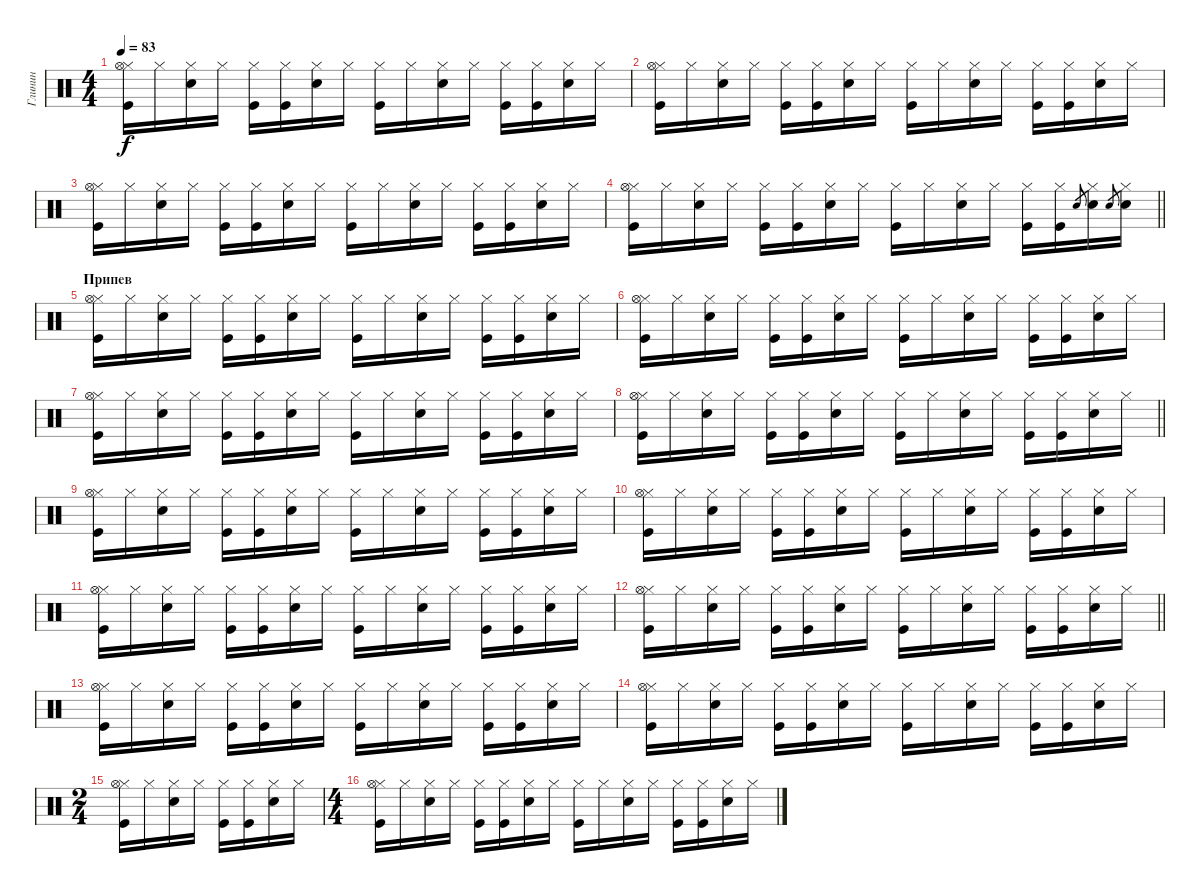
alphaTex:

\track ("Глинин" "Глинин") {instrument percussion}
\staff {score}
\articulation defaults
\ts (4 4)
\tempo 83
\clef neutral
\ks c
("Hi-Hat (closed)" "Kick (hit)" "Hi-Hat (open)").16{dy f} "Hi-Hat (closed)".16 ("Hi-Hat (closed)" "Snare (hit) 2").16 "Hi-Hat (closed)".16 ("Hi-Hat (closed)" "Kick (hit)").16 ("Hi-Hat (closed)" "Kick (hit)").16 ("Hi-Hat (closed)" "Snare (hit) 2").16 "Hi-Hat (closed)".16 ("Hi-Hat (closed)" "Kick (hit)").16 "Hi-Hat (closed)".16 ("Hi-Hat (closed)" "Snare (hit) 2").16 "Hi-Hat (closed)".16 ("Hi-Hat (closed)" "Kick (hit)").16 ("Hi-Hat (closed)" "Kick (hit)").16 ("Hi-Hat (closed)" "Snare (hit) 2").16 "Hi-Hat (closed)".16 |
("Hi-Hat (closed)" "Kick (hit)" "Hi-Hat (open)").16 "Hi-Hat (closed)".16 ("Hi-Hat (closed)" "Snare (hit) 2").16 "Hi-Hat (closed)".16 ("Hi-Hat (closed)" "Kick (hit)").16 ("Hi-Hat (closed)" "Kick (hit)").16 ("Hi-Hat (closed)" "Snare (hit) 2").16 "Hi-Hat (closed)".16 ("Hi-Hat (closed)" "Kick (hit)").16 "Hi-Hat (closed)".16 ("Hi-Hat (closed)" "Snare (hit) 2").16 "Hi-Hat (closed)".16 ("Hi-Hat (closed)" "Kick (hit)").16 ("Hi-Hat (closed)" "Kick (hit)").16 ("Hi-Hat (closed)" "Snare (hit) 2").16 "Hi-Hat (closed)".16 |
("Hi-Hat (closed)" "Kick (hit)" "Hi-Hat (open)").16 "Hi-Hat (closed)".16 ("Hi-Hat (closed)" "Snare (hit) 2").16 "Hi-Hat (closed)".16 ("Hi-Hat (closed)" "Kick (hit)").16 ("Hi-Hat (closed)" "Kick (hit)").16 ("Hi-Hat (closed)" "Snare (hit) 2").16 "Hi-Hat (closed)".16 ("Hi-Hat (closed)" "Kick (hit)").16 "Hi-Hat (closed)".16 ("Hi-Hat (closed)" "Snare (hit) 2").16 "Hi-Hat (closed)".16 ("Hi-Hat (closed)" "Kick (hit)").16 ("Hi-Hat (closed)" "Kick (hit)").16 ("Hi-Hat (closed)" "Snare (hit) 2").16 "Hi-Hat (closed)".16 |
\barLineRight lightlight
("Hi-Hat (closed)" "Kick (hit)" "Hi-Hat (open)").16 "Hi-Hat (closed)".16 ("Hi-Hat (closed)" "Snare (hit) 2").16 "Hi-Hat (closed)".16 ("Hi-Hat (closed)" "Kick (hit)").16 ("Hi-Hat (closed)" "Kick (hit)").16 ("Hi-Hat (closed)" "Snare (hit) 2").16 "Hi-Hat (closed)".16 ("Hi-Hat (closed)" "Kick (hit)").16 "Hi-Hat (closed)".16 ("Hi-Hat (closed)" "Snare (hit) 2").16 "Hi-Hat (closed)".16 ("Hi-Hat (closed)" "Kick (hit)").16 ("Hi-Hat (closed)" "Kick (hit)").16 "Snare (hit) 2".8{gr} ("Hi-Hat (closed)" "Snare (hit) 2").16 "Snare (hit) 2".8{gr} ("Hi-Hat (closed)" "Snare (hit) 2").16 |
\section ("" "Припев")
("Hi-Hat (closed)" "Kick (hit)" "Hi-Hat (open)").16 "Hi-Hat (closed)".16 ("Hi-Hat (closed)" "Snare (hit) 2").16 "Hi-Hat (closed)".16 ("Hi-Hat (closed)" "Kick (hit)").16 ("Hi-Hat (closed)" "Kick (hit)").16 ("Hi-Hat (closed)" "Snare (hit) 2").16 "Hi-Hat (closed)".16 ("Hi-Hat (closed)" "Kick (hit)").16 "Hi-Hat (closed)".16 ("Hi-Hat (closed)" "Snare (hit) 2").16 "Hi-Hat (closed)".16 ("Hi-Hat (closed)" "Kick (hit)").16 ("Hi-Hat (closed)" "Kick (hit)").16 ("Hi-Hat (closed)" "Snare (hit) 2").16 "Hi-Hat (closed)".16 |
("Hi-Hat (closed)" "Kick (hit)" "Hi-Hat (open)").16 "Hi-Hat (closed)".16 ("Hi-Hat (closed)" "Snare (hit) 2").16 "Hi-Hat (closed)".16 ("Hi-Hat (closed)" "Kick (hit)").16 ("Hi-Hat (closed)" "Kick (hit)").16 ("Hi-Hat (closed)" "Snare (hit) 2").16 "Hi-Hat (closed)".16 ("Hi-Hat (closed)" "Kick (hit)").16 "Hi-Hat (closed)".16 ("Hi-Hat (closed)" "Snare (hit) 2").16 "Hi-Hat (closed)".16 ("Hi-Hat (closed)" "Kick (hit)").16 ("Hi-Hat (closed)" "Kick (hit)").16 ("Hi-Hat (closed)" "Snare (hit) 2").16 "Hi-Hat (closed)".16 |
("Hi-Hat (closed)" "Kick (hit)" "Hi-Hat (open)").16 "Hi-Hat (closed)".16 ("Hi-Hat (closed)" "Snare (hit) 2").16 "Hi-Hat (closed)".16 ("Hi-Hat (closed)" "Kick (hit)").16 ("Hi-Hat (closed)" "Kick (hit)").16 ("Hi-Hat (closed)" "Snare (hit) 2").16 "Hi-Hat (closed)".16 ("Hi-Hat (closed)" "Kick (hit)").16 "Hi-Hat (closed)".16 ("Hi-Hat (closed)" "Snare (hit) 2").16 "Hi-Hat (closed)".16 ("Hi-Hat (closed)" "Kick (hit)").16 ("Hi-Hat (closed)" "Kick (hit)").16 ("Hi-Hat (closed)" "Snare (hit) 2").16 "Hi-Hat (closed)".16 |
\barLineRight lightlight
("Hi-Hat (closed)" "Kick (hit)" "Hi-Hat (open)").16 "Hi-Hat (closed)".16 ("Hi-Hat (closed)" "Snare (hit) 2").16 "Hi-Hat (closed)".16 ("Hi-Hat (closed)" "Kick (hit)").16 ("Hi-Hat (closed)" "Kick (hit)").16 ("Hi-Hat (closed)" "Snare (hit) 2").16 "Hi-Hat (closed)".16 ("Hi-Hat (closed)" "Kick (hit)").16 "Hi-Hat (closed)".16 ("Hi-Hat (closed)" "Snare (hit) 2").16 "Hi-Hat (closed)".16 ("Hi-Hat (closed)" "Kick (hit)").16 ("Hi-Hat (closed)" "Kick (hit)").16 ("Hi-Hat (closed)" "Snare (hit) 2").16 "Hi-Hat (closed)".16 |
("Hi-Hat (closed)" "Kick (hit)" "Hi-Hat (open)").16 "Hi-Hat (closed)".16 ("Hi-Hat (closed)" "Snare (hit) 2").16 "Hi-Hat (closed)".16 ("Hi-Hat (closed)" "Kick (hit)").16 ("Hi-Hat (closed)" "Kick (hit)").16 ("Hi-Hat (closed)" "Snare (hit) 2").16 "Hi-Hat (closed)".16 ("Hi-Hat (closed)" "Kick (hit)").16 "Hi-Hat (closed)".16 ("Hi-Hat (closed)" "Snare (hit) 2").16 "Hi-Hat (closed)".16 ("Hi-Hat (closed)" "Kick (hit)").16 ("Hi-Hat (closed)" "Kick (hit)").16 ("Hi-Hat (closed)" "Snare (hit) 2").16 "Hi-Hat (closed)".16 |
("Hi-Hat (closed)" "Kick (hit)" "Hi-Hat (open)").16 "Hi-Hat (closed)".16 ("Hi-Hat (closed)" "Snare (hit) 2").16 "Hi-Hat (closed)".16 ("Hi-Hat (closed)" "Kick (hit)").16 ("Hi-Hat (closed)" "Kick (hit)").16 ("Hi-Hat (closed)" "Snare (hit) 2").16 "Hi-Hat (closed)".16 ("Hi-Hat (closed)" "Kick (hit)").16 "Hi-Hat (closed)".16 ("Hi-Hat (closed)" "Snare (hit) 2").16 "Hi-Hat (closed)".16 ("Hi-Hat (closed)" "Kick (hit)").16 ("Hi-Hat (closed)" "Kick (hit)").16 ("Hi-Hat (closed)" "Snare (hit) 2").16 "Hi-Hat (closed)".16 |
("Hi-Hat (closed)" "Kick (hit)" "Hi-Hat (open)").16 "Hi-Hat (closed)".16 ("Hi-Hat (closed)" "Snare (hit) 2").16 "Hi-Hat (closed)".16 ("Hi-Hat (closed)" "Kick (hit)").16 ("Hi-Hat (closed)" "Kick (hit)").16 ("Hi-Hat (closed)" "Snare (hit) 2").16 "Hi-Hat (closed)".16 ("Hi-Hat (closed)" "Kick (hit)").16 "Hi-Hat (closed)".16 ("Hi-Hat (closed)" "Snare (hit) 2").16 "Hi-Hat (closed)".16 ("Hi-Hat (closed)" "Kick (hit)").16 ("Hi-Hat (closed)" "Kick (hit)").16 ("Hi-Hat (closed)" "Snare (hit) 2").16 "Hi-Hat (closed)".16 |
\barLineRight lightlight
("Hi-Hat (closed)" "Kick (hit)" "Hi-Hat (open)").16 "Hi-Hat (closed)".16 ("Hi-Hat (closed)" "Snare (hit) 2").16 "Hi-Hat (closed)".16 ("Hi-Hat (closed)" "Kick (hit)").16 ("Hi-Hat (closed)" "Kick (hit)").16 ("Hi-Hat (closed)" "Snare (hit) 2").16 "Hi-Hat (closed)".16 ("Hi-Hat (closed)" "Kick (hit)").16 "Hi-Hat (closed)".16 ("Hi-Hat (closed)" "Snare (hit) 2").16 "Hi-Hat (closed)".16 ("Hi-Hat (closed)" "Kick (hit)").16 ("Hi-Hat (closed)" "Kick (hit)").16 ("Hi-Hat (closed)" "Snare (hit) 2").16 "Hi-Hat (closed)".16 |
("Hi-Hat (closed)" "Kick (hit)" "Hi-Hat (open)").16 "Hi-Hat (closed)".16 ("Hi-Hat (closed)" "Snare (hit) 2").16 "Hi-Hat (closed)".16 ("Hi-Hat (closed)" "Kick (hit)").16 ("Hi-Hat (closed)" "Kick (hit)").16 ("Hi-Hat (closed)" "Snare (hit) 2").16 "Hi-Hat (closed)".16 ("Hi-Hat (closed)" "Kick (hit)").16 "Hi-Hat (closed)".16 ("Hi-Hat (closed)" "Snare (hit) 2").16 "Hi-Hat (closed)".16 ("Hi-Hat (closed)" "Kick (hit)").16 ("Hi-Hat (closed)" "Kick (hit)").16 ("Hi-Hat (closed)" "Snare (hit) 2").16 "Hi-Hat (closed)".16 |
("Hi-Hat (closed)" "Kick (hit)" "Hi-Hat (open)").16 "Hi-Hat (closed)".16 ("Hi-Hat (closed)" "Snare (hit) 2").16 "Hi-Hat (closed)".16 ("Hi-Hat (closed)" "Kick (hit)").16 ("Hi-Hat (closed)" "Kick (hit)").16 ("Hi-Hat (closed)" "Snare (hit) 2").16 "Hi-Hat (closed)".16 ("Hi-Hat (closed)" "Kick (hit)").16 "Hi-Hat (closed)".16 ("Hi-Hat (closed)" "Snare (hit) 2").16 "Hi-Hat (closed)".16 ("Hi-Hat (closed)" "Kick (hit)").16 ("Hi-Hat (closed)" "Kick (hit)").16 ("Hi-Hat (closed)" "Snare (hit) 2").16 "Hi-Hat (closed)".16 |
\ts (2 4)
("Hi-Hat (closed)" "Kick (hit)" "Hi-Hat (open)").16 "Hi-Hat (closed)".16 ("Hi-Hat (closed)" "Snare (hit) 2").16 "Hi-Hat (closed)".16 ("Hi-Hat (closed)" "Kick (hit)").16 ("Hi-Hat (closed)" "Kick (hit)").16 ("Hi-Hat (closed)" "Snare (hit) 2").16 "Hi-Hat (closed)".16 |
\ts (4 4)
("Hi-Hat (closed)" "Kick (hit)" "Hi-Hat (open)").16 "Hi-Hat (closed)".16 ("Hi-Hat (closed)" "Snare (hit) 2").16 "Hi-Hat (closed)".16 ("Hi-Hat (closed)" "Kick (hit)").16 ("Hi-Hat (closed)" "Kick (hit)").16 ("Hi-Hat (closed)" "Snare (hit) 2").16 "Hi-Hat (closed)".16 ("Hi-Hat (closed)" "Kick (hit)").16 "Hi-Hat (closed)".16 ("Hi-Hat (closed)" "Snare (hit) 2").16 "Hi-Hat (closed)".16 ("Hi-Hat (closed)" "Kick (hit)").16 ("Hi-Hat (closed)" "Kick (hit)").16 ("Hi-Hat (closed)" "Snare (hit) 2").16 "Hi-Hat (closed)".16
